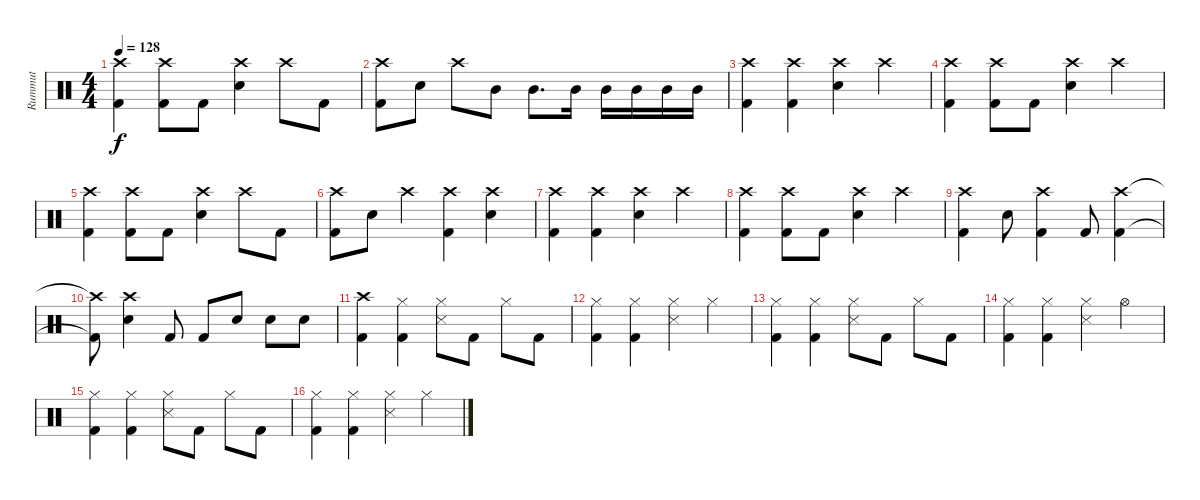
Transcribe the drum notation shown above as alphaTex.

\track ("Rummut" "Rummut") {instrument percussion}
\staff {score}
\articulation defaults
\ts (4 4)
\tempo 128
\clef neutral
\ks aminor
("Crash high (hit)" "Kick (hit) 2").4{dy f} ("Crash high (hit)" "Kick (hit) 2").8 "Kick (hit) 2".8 ("Crash high (hit)" "Electric Snare (hit)").4 "Crash high (hit)".8 "Kick (hit) 2".8 |
("Crash high (hit)" "Kick (hit) 2").8 "Electric Snare (hit)".8 "Crash high (hit)".8 "Mid Tom (hit)".8 "Mid Tom (hit)".8{d} "Mid Tom (hit)".16 "Mid Tom (hit)".16 "Mid Tom (hit)".16 "Mid Tom (hit)".16 "Mid Tom (hit)".16 |
("Crash high (hit)" "Kick (hit) 2").4 ("Crash high (hit)" "Kick (hit) 2").4 ("Crash high (hit)" "Electric Snare (hit)").4 "Crash high (hit)".4 |
("Crash high (hit)" "Kick (hit) 2").4 ("Crash high (hit)" "Kick (hit) 2").8 "Kick (hit) 2".8 ("Crash high (hit)" "Electric Snare (hit)").4 "Crash high (hit)".4 |
("Crash high (hit)" "Kick (hit) 2").4 ("Crash high (hit)" "Kick (hit) 2").8 "Kick (hit) 2".8 ("Crash high (hit)" "Electric Snare (hit)").4 "Crash high (hit)".8 "Kick (hit) 2".8 |
("Crash high (hit)" "Kick (hit) 2").8 "Electric Snare (hit)".8 "Crash high (hit)".4 ("Crash high (hit)" "Kick (hit) 2").4 ("Crash high (hit)" "Electric Snare (hit)").4 |
("Crash high (hit)" "Kick (hit) 2").4 ("Crash high (hit)" "Kick (hit) 2").4 ("Crash high (hit)" "Electric Snare (hit)").4 "Crash high (hit)".4 |
("Crash high (hit)" "Kick (hit) 2").4 ("Crash high (hit)" "Kick (hit) 2").8 "Kick (hit) 2".8 ("Crash high (hit)" "Electric Snare (hit)").4 "Crash high (hit)".4 |
("Crash high (hit)" "Kick (hit) 2").4 "Electric Snare (hit)".8 ("Crash high (hit)" "Kick (hit) 2").4 "Kick (hit) 2".8 ("Crash high (hit)" "Kick (hit) 2").4 |
("Crash high (hit)"{t} "Kick (hit) 2"{t}).8 ("Crash high (hit)" "Electric Snare (hit)").4 "Kick (hit) 2".8 "Kick (hit) 2".8 "Electric Snare (hit)".8 "Electric Snare (hit)".8 "Electric Snare (hit)".8 |
("Crash high (hit)" "Kick (hit) 2").4 ("Hi-Hat (closed)" "Kick (hit) 2").4 ("Hi-Hat (closed)" "Snare (side stick) 3").8 "Kick (hit) 2".8 "Hi-Hat (closed)".8 "Kick (hit) 2".8 |
("Hi-Hat (closed)" "Kick (hit) 2").4 ("Hi-Hat (closed)" "Kick (hit) 2").4 ("Hi-Hat (closed)" "Snare (side stick) 3").4 "Hi-Hat (closed)".4 |
("Hi-Hat (closed)" "Kick (hit) 2").4 ("Hi-Hat (closed)" "Kick (hit) 2").4 ("Hi-Hat (closed)" "Snare (side stick) 3").8 "Kick (hit) 2".8 "Hi-Hat (closed)".8 "Kick (hit) 2".8 |
("Hi-Hat (closed)" "Kick (hit) 2").4 ("Hi-Hat (closed)" "Kick (hit) 2").4 ("Hi-Hat (closed)" "Snare (side stick) 3").4 "Hi-Hat (open)".4 |
("Hi-Hat (closed)" "Kick (hit) 2").4 ("Hi-Hat (closed)" "Kick (hit) 2").4 ("Hi-Hat (closed)" "Snare (side stick) 3").8 "Kick (hit) 2".8 "Hi-Hat (closed)".8 "Kick (hit) 2".8 |
("Hi-Hat (closed)" "Kick (hit) 2").4 ("Hi-Hat (closed)" "Kick (hit) 2").4 ("Hi-Hat (closed)" "Snare (side stick) 3").4 "Hi-Hat (closed)".4
